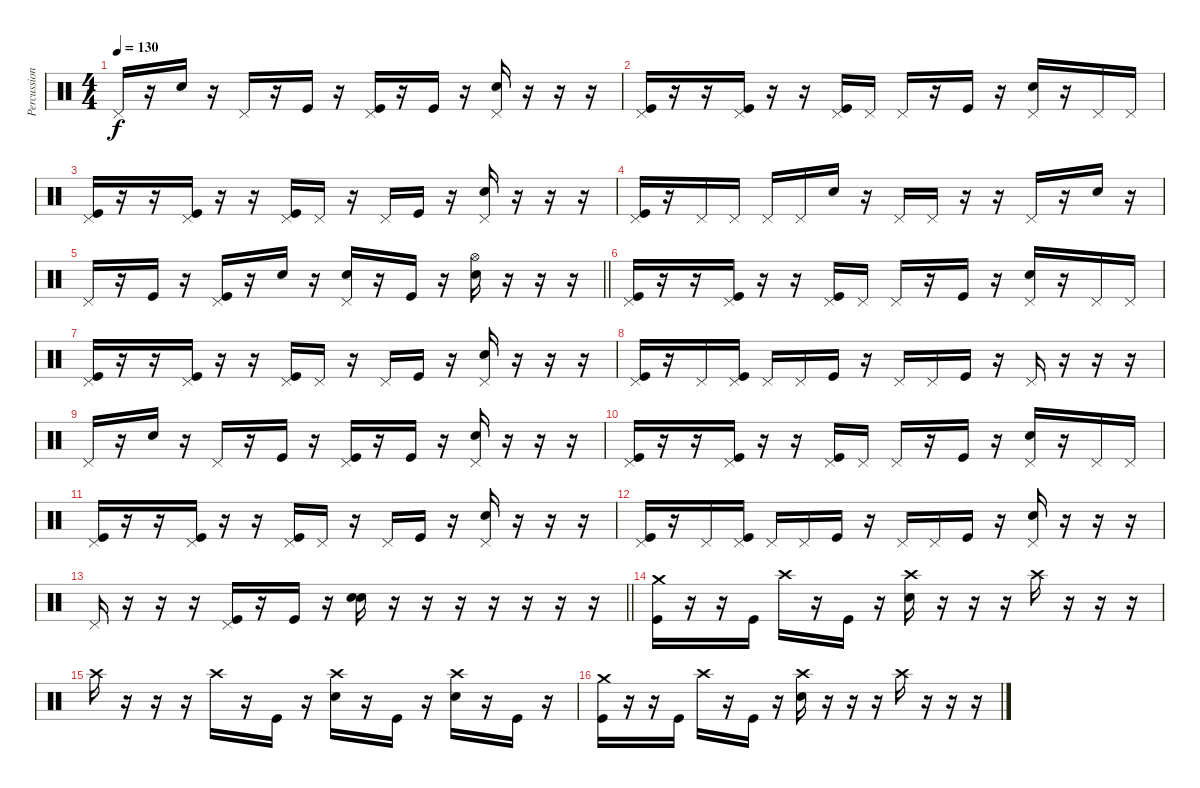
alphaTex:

\track ("Percussion" "Percussion") {instrument percussion}
\staff {score}
\articulation defaults
\ts (4 4)
\tempo 130
\clef neutral
\ks c "Pedal Hi-Hat (hit)".16{dy f}
r.16 "Electric Snare (hit)".16 r.16 "Pedal Hi-Hat (hit)".16 r.16 "Kick (hit)".16 r.16 ("Pedal Hi-Hat (hit)" "Kick (hit)").16 r.16 "Kick (hit)".16 r.16 ("Pedal Hi-Hat (hit)" "Electric Snare (hit)").16 r.16 r.16 r.16 |
("Pedal Hi-Hat (hit)" "Kick (hit)").16 r.16 r.16 ("Pedal Hi-Hat (hit)" "Kick (hit)").16 r.16 r.16 ("Pedal Hi-Hat (hit)" "Kick (hit)").16 "Pedal Hi-Hat (hit)".16 "Pedal Hi-Hat (hit)".16 r.16 "Kick (hit)".16 r.16 ("Pedal Hi-Hat (hit)" "Electric Snare (hit)").16 r.16 "Pedal Hi-Hat (hit)".16 "Pedal Hi-Hat (hit)".16 |
("Pedal Hi-Hat (hit)" "Kick (hit)").16 r.16 r.16 ("Pedal Hi-Hat (hit)" "Kick (hit)").16 r.16 r.16 ("Pedal Hi-Hat (hit)" "Kick (hit)").16 "Pedal Hi-Hat (hit)".16 r.16 "Pedal Hi-Hat (hit)".16 "Kick (hit)".16 r.16 ("Pedal Hi-Hat (hit)" "Electric Snare (hit)").16 r.16 r.16 r.16 |
("Pedal Hi-Hat (hit)" "Kick (hit)").16 r.16 "Pedal Hi-Hat (hit)".16 "Pedal Hi-Hat (hit)".16 "Pedal Hi-Hat (hit)".16 "Pedal Hi-Hat (hit)".16 "Electric Snare (hit)".16 r.16 "Pedal Hi-Hat (hit)".16 "Pedal Hi-Hat (hit)".16 r.16 r.16 "Pedal Hi-Hat (hit)".16 r.16 "Electric Snare (hit)".16 r.16 |
\barLineRight lightlight "Pedal Hi-Hat (hit)".16
r.16 "Kick (hit)".16 r.16 ("Pedal Hi-Hat (hit)" "Kick (hit)").16 r.16 "Electric Snare (hit)".16 r.16 ("Pedal Hi-Hat (hit)" "Electric Snare (hit)").16 r.16 "Kick (hit)".16 r.16 ("Hi-Hat (open)" "Electric Snare (hit)").16 r.16 r.16 r.16 |
\section ("" "")
("Pedal Hi-Hat (hit)" "Kick (hit)").16 r.16 r.16 ("Pedal Hi-Hat (hit)" "Kick (hit)").16 r.16 r.16 ("Pedal Hi-Hat (hit)" "Kick (hit)").16 "Pedal Hi-Hat (hit)".16 "Pedal Hi-Hat (hit)".16 r.16 "Kick (hit)".16 r.16 ("Pedal Hi-Hat (hit)" "Electric Snare (hit)").16 r.16 "Pedal Hi-Hat (hit)".16 "Pedal Hi-Hat (hit)".16 |
("Pedal Hi-Hat (hit)" "Kick (hit)").16 r.16 r.16 ("Pedal Hi-Hat (hit)" "Kick (hit)").16 r.16 r.16 ("Pedal Hi-Hat (hit)" "Kick (hit)").16 "Pedal Hi-Hat (hit)".16 r.16 "Pedal Hi-Hat (hit)".16 "Kick (hit)".16 r.16 ("Pedal Hi-Hat (hit)" "Electric Snare (hit)").16 r.16 r.16 r.16 |
("Pedal Hi-Hat (hit)" "Kick (hit)").16 r.16 "Pedal Hi-Hat (hit)".16 ("Pedal Hi-Hat (hit)" "Kick (hit)").16 "Pedal Hi-Hat (hit)".16 "Pedal Hi-Hat (hit)".16 "Kick (hit)".16 r.16 "Pedal Hi-Hat (hit)".16 "Pedal Hi-Hat (hit)".16 "Kick (hit)".16 r.16 "Pedal Hi-Hat (hit)".16 r.16 r.16 r.16 |
"Pedal Hi-Hat (hit)".16 r.16 "Electric Snare (hit)".16 r.16 "Pedal Hi-Hat (hit)".16 r.16 "Kick (hit)".16 r.16 ("Pedal Hi-Hat (hit)" "Kick (hit)").16 r.16 "Kick (hit)".16 r.16 ("Pedal Hi-Hat (hit)" "Electric Snare (hit)").16 r.16 r.16 r.16 |
("Pedal Hi-Hat (hit)" "Kick (hit)").16 r.16 r.16 ("Pedal Hi-Hat (hit)" "Kick (hit)").16 r.16 r.16 ("Pedal Hi-Hat (hit)" "Kick (hit)").16 "Pedal Hi-Hat (hit)".16 "Pedal Hi-Hat (hit)".16 r.16 "Kick (hit)".16 r.16 ("Pedal Hi-Hat (hit)" "Electric Snare (hit)").16 r.16 "Pedal Hi-Hat (hit)".16 "Pedal Hi-Hat (hit)".16 |
("Pedal Hi-Hat (hit)" "Kick (hit)").16 r.16 r.16 ("Pedal Hi-Hat (hit)" "Kick (hit)").16 r.16 r.16 ("Pedal Hi-Hat (hit)" "Kick (hit)").16 "Pedal Hi-Hat (hit)".16 r.16 "Pedal Hi-Hat (hit)".16 "Kick (hit)".16 r.16 ("Pedal Hi-Hat (hit)" "Electric Snare (hit)").16 r.16 r.16 r.16 |
("Pedal Hi-Hat (hit)" "Kick (hit)").16 r.16 "Pedal Hi-Hat (hit)".16 ("Pedal Hi-Hat (hit)" "Kick (hit)").16 "Pedal Hi-Hat (hit)".16 "Pedal Hi-Hat (hit)".16 "Kick (hit)".16 r.16 "Pedal Hi-Hat (hit)".16 "Pedal Hi-Hat (hit)".16 "Kick (hit)".16 r.16 ("Pedal Hi-Hat (hit)" "Electric Snare (hit)").16 r.16 r.16 r.16 |
\barLineRight lightlight "Pedal Hi-Hat (hit)".16
r.16 r.16 r.16 ("Pedal Hi-Hat (hit)" "Kick (hit)").16 r.16 "Kick (hit)".16 r.16 ("Snare (hit) 2" "Electric Snare (hit)").16 r.16 r.16 r.16 r.16 r.16 r.16 r.16 |
\section ("" "")
("Crash medium (hit)" "Kick (hit)").16 r.16 r.16 "Kick (hit)".16 "Crash high (hit)".16 r.16 "Kick (hit)".16 r.16 ("Crash high (hit)" "Electric Snare (hit)").16 r.16 r.16 r.16 "Crash high (hit)".16 r.16 r.16 r.16 |
"Crash high (hit)".16 r.16 r.16 r.16 "Crash high (hit)".16 r.16 "Kick (hit)".16 r.16 ("Crash high (hit)" "Electric Snare (hit)").16 r.16 "Kick (hit)".16 r.16 ("Crash high (hit)" "Electric Snare (hit)").16 r.16 "Kick (hit)".16 r.16 |
("Crash medium (hit)" "Kick (hit)").16 r.16 r.16 "Kick (hit)".16 "Crash high (hit)".16 r.16 "Kick (hit)".16 r.16 ("Crash high (hit)" "Electric Snare (hit)").16 r.16 r.16 r.16 "Crash high (hit)".16 r.16 r.16 r.16
